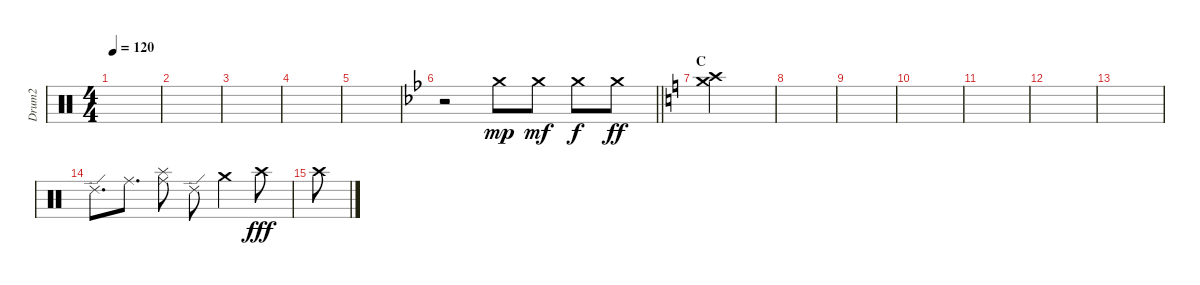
\track ("Drum2" "Drum2") {instrument percussion}
\staff {score}
\articulation defaults
\ts (4 4)
\tempo 120
\clef neutral
\ks c
|
|
|
|
|
\barLineRight lightlight
\ks bb
r.2 "Crash medium (hit)".8{dy mp} "Crash medium (hit)".8{dy mf} "Crash medium (hit)".8{dy f} "Crash medium (hit)".8{dy ff} |
\section ("" "C")
\ks c
("Crash high (hit)" "Crash medium (hit)").2 |
|
|
|
|
|
|
"Ride (edge) 2".8{d} "Ride (middle)".8{d} ("Ride (middle)" "Splash (hit)").8 "Ride (edge) 2".8 "Crash medium (hit)".4 "Crash high (hit)".8{dy fff} |
"Crash high (hit)".8
